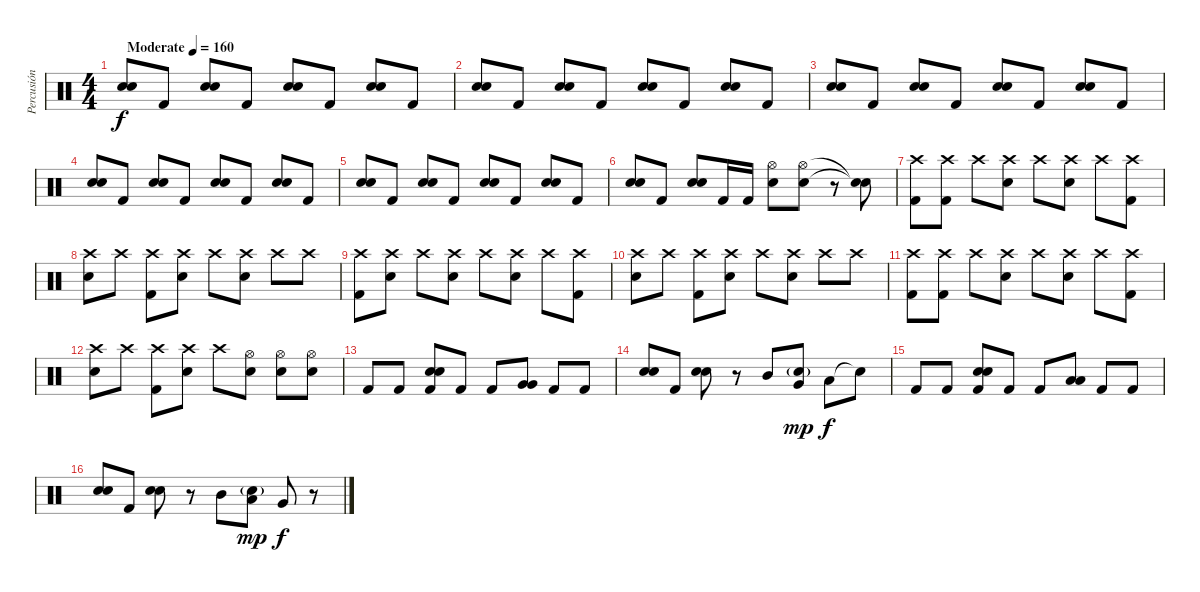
\track ("Percusión" "Percusión") {instrument percussion}
\staff {score}
\articulation defaults
\ts (4 4)
\tempo (160 "Moderate")
\clef neutral
\ks c
("Electric Snare (hit)" "Electric Snare (hit)").8{bd 480 dy f} "Kick (hit) 2".8 ("Electric Snare (hit)" "Electric Snare (hit)").8{bd 480} "Kick (hit) 2".8 ("Electric Snare (hit)" "Electric Snare (hit)").8{bd 480} "Kick (hit) 2".8 ("Electric Snare (hit)" "Electric Snare (hit)").8{bd 480} "Kick (hit) 2".8 |
("Electric Snare (hit)" "Electric Snare (hit)").8{bd 480} "Kick (hit) 2".8 ("Electric Snare (hit)" "Electric Snare (hit)").8{bd 480} "Kick (hit) 2".8 ("Electric Snare (hit)" "Electric Snare (hit)").8{bd 480} "Kick (hit) 2".8 ("Electric Snare (hit)" "Electric Snare (hit)").8{bd 480} "Kick (hit) 2".8 |
("Electric Snare (hit)" "Electric Snare (hit)").8{bd 480} "Kick (hit) 2".8 ("Electric Snare (hit)" "Electric Snare (hit)").8{bd 480} "Kick (hit) 2".8 ("Electric Snare (hit)" "Electric Snare (hit)").8{bd 480} "Kick (hit) 2".8 ("Electric Snare (hit)" "Electric Snare (hit)").8{bd 480} "Kick (hit) 2".8 |
("Electric Snare (hit)" "Electric Snare (hit)").8{bd 480} "Kick (hit) 2".8 ("Electric Snare (hit)" "Electric Snare (hit)").8{bd 480} "Kick (hit) 2".8 ("Electric Snare (hit)" "Electric Snare (hit)").8{bd 480} "Kick (hit) 2".8 ("Electric Snare (hit)" "Electric Snare (hit)").8{bd 480} "Kick (hit) 2".8 |
("Electric Snare (hit)" "Electric Snare (hit)").8{bd 480} "Kick (hit) 2".8 ("Electric Snare (hit)" "Electric Snare (hit)").8{bd 480} "Kick (hit) 2".8 ("Electric Snare (hit)" "Electric Snare (hit)").8{bd 480} "Kick (hit) 2".8 ("Electric Snare (hit)" "Electric Snare (hit)").8{bd 480} "Kick (hit) 2".8 |
("Electric Snare (hit)" "Electric Snare (hit)").8{bd 480} "Kick (hit) 2".8 ("Electric Snare (hit)" "Electric Snare (hit)").8{bd 480} "Kick (hit) 2".16 "Kick (hit) 2".16{bd 480} ("Hi-Hat (open)" "Electric Snare (hit)").8 ("Hi-Hat (open)" "Electric Snare (hit)").8 r.8 ("Snare (hit)"{t} "Snare (hit)"{t}).8 |
("Crash high (hit)" "Kick (hit) 2").8 ("Crash high (hit)" "Kick (hit) 2").8 "Crash high (hit)".8 ("Crash high (hit)" "Electric Snare (hit)").8 "Crash high (hit)".8 ("Crash high (hit)" "Electric Snare (hit)").8 "Crash high (hit)".8 ("Crash high (hit)" "Kick (hit) 2").8 |
("Crash high (hit)" "Electric Snare (hit)").8 "Crash high (hit)".8 ("Crash high (hit)" "Kick (hit) 2").8 ("Crash high (hit)" "Electric Snare (hit)").8 "Crash high (hit)".8 ("Crash high (hit)" "Electric Snare (hit)").8 "Crash high (hit)".8 "Crash high (hit)".8 |
("Crash high (hit)" "Kick (hit) 2").8 ("Crash high (hit)" "Electric Snare (hit)").8 "Crash high (hit)".8 ("Crash high (hit)" "Electric Snare (hit)").8 "Crash high (hit)".8 ("Crash high (hit)" "Electric Snare (hit)").8 "Crash high (hit)".8 ("Crash high (hit)" "Kick (hit) 2").8 |
("Crash high (hit)" "Electric Snare (hit)").8 "Crash high (hit)".8 ("Crash high (hit)" "Kick (hit) 2").8 ("Crash high (hit)" "Electric Snare (hit)").8 "Crash high (hit)".8 ("Crash high (hit)" "Electric Snare (hit)").8 "Crash high (hit)".8 "Crash high (hit)".8 |
("Crash high (hit)" "Kick (hit) 2").8 ("Crash high (hit)" "Kick (hit) 2").8 "Crash high (hit)".8 ("Crash high (hit)" "Electric Snare (hit)").8 "Crash high (hit)".8 ("Crash high (hit)" "Electric Snare (hit)").8 "Crash high (hit)".8 ("Crash high (hit)" "Kick (hit) 2").8 |
("Crash high (hit)" "Electric Snare (hit)").8 "Crash high (hit)".8 ("Crash high (hit)" "Kick (hit) 2").8 ("Crash high (hit)" "Electric Snare (hit)").8 "Crash high (hit)".8 ("Hi-Hat (open)" "Electric Snare (hit)").8 ("Hi-Hat (open)" "Electric Snare (hit)").8 ("Hi-Hat (open)" "Electric Snare (hit)").8 |
"Kick (hit) 2".8 "Kick (hit) 2".8 ("Electric Snare (hit)" "Electric Snare (hit)" "Kick (hit) 2").8{bd 480} "Kick (hit) 2".8 "Kick (hit) 2".8 ("Very Low Tom (hit)" "Very Low Tom (hit)").8{bd 480} "Kick (hit) 2".8 "Kick (hit) 2".8 |
("Electric Snare (hit)" "Electric Snare (hit)").8{bd 480} "Kick (hit) 2".8 ("Electric Snare (hit)" "Electric Snare (hit)").8{bd 480} r.8 "Mid Tom (hit)".8 ("Electric Snare (hit)"{g} "Very Low Tom (hit)").8{dy mp} "Low Floor Tom (hit)".8{dy f} "Snare (hit)"{t}.8 |
"Kick (hit) 2".8 "Kick (hit) 2".8 ("Electric Snare (hit)" "Electric Snare (hit)" "Kick (hit) 2").8{bd 480} "Kick (hit) 2".8 "Kick (hit) 2".8 ("Low Floor Tom (hit)" "Low Floor Tom (hit)").8{bd 480} "Kick (hit) 2".8 "Kick (hit) 2".8 |
("Electric Snare (hit)" "Electric Snare (hit)").8{bd 480} "Kick (hit) 2".8 ("Electric Snare (hit)" "Electric Snare (hit)").8{bd 480} r.8 "Mid Tom (hit)".8 ("Electric Snare (hit)"{g} "Low Tom (hit)").8{dy mp} "Very Low Tom (hit)".8{dy f} r.8
